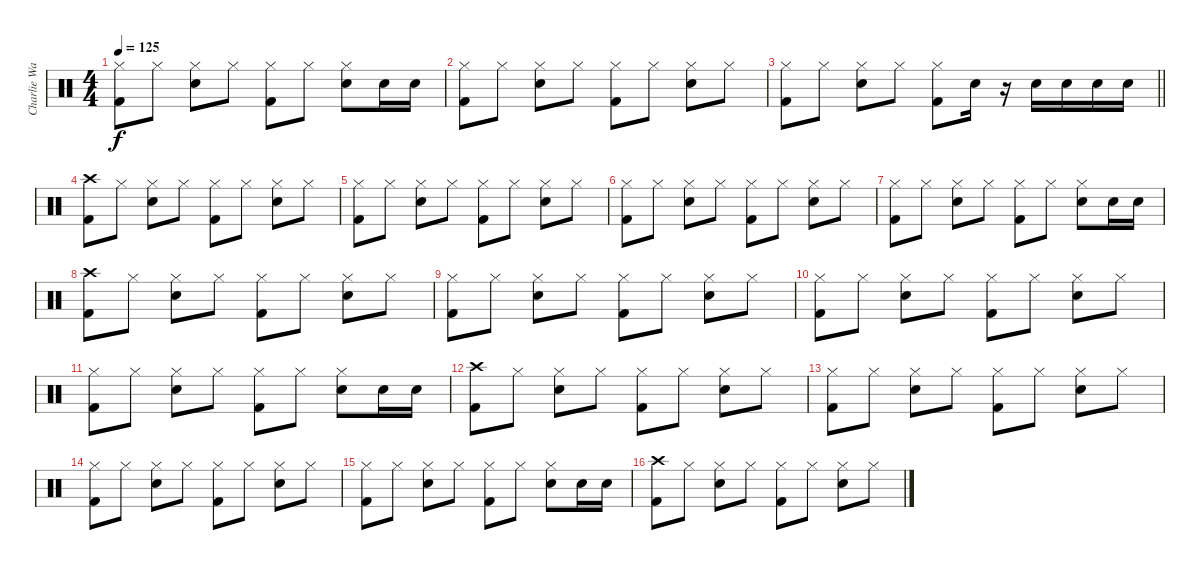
\track ("Charlie Watson" "Charlie Wa") {instrument percussion}
\staff {score}
\articulation defaults
\ts (4 4)
\tempo 125
\clef neutral
\ks c
("Hi-Hat (closed)" "Kick (hit) 2").8{dy f} "Hi-Hat (closed)".8 ("Hi-Hat (closed)" "Snare (hit) 2").8 "Hi-Hat (closed)".8 ("Hi-Hat (closed)" "Kick (hit) 2").8 "Hi-Hat (closed)".8 ("Hi-Hat (closed)" "Snare (hit) 2").8 "Snare (hit) 2".16 "Snare (hit) 2".16 |
("Hi-Hat (closed)" "Kick (hit) 2").8 "Hi-Hat (closed)".8 ("Hi-Hat (closed)" "Snare (hit) 2").8 "Hi-Hat (closed)".8 ("Hi-Hat (closed)" "Kick (hit) 2").8 "Hi-Hat (closed)".8 ("Hi-Hat (closed)" "Snare (hit) 2").8 "Hi-Hat (closed)".8 |
\barLineRight lightlight
("Hi-Hat (closed)" "Kick (hit) 2").8 "Hi-Hat (closed)".8 ("Hi-Hat (closed)" "Snare (hit) 2").8 "Hi-Hat (closed)".8 ("Hi-Hat (closed)" "Kick (hit) 2").8 "Snare (hit) 2".16 r.16 "Snare (hit) 2".16 "Snare (hit) 2".16 "Snare (hit) 2".16 "Snare (hit) 2".16 |
("Crash high (hit)" "Kick (hit) 2").8 "Hi-Hat (closed)".8 ("Hi-Hat (closed)" "Snare (hit) 2").8 "Hi-Hat (closed)".8 ("Hi-Hat (closed)" "Kick (hit) 2").8 "Hi-Hat (closed)".8 ("Hi-Hat (closed)" "Snare (hit) 2").8 "Hi-Hat (closed)".8 |
("Hi-Hat (closed)" "Kick (hit) 2").8 "Hi-Hat (closed)".8 ("Hi-Hat (closed)" "Snare (hit) 2").8 "Hi-Hat (closed)".8 ("Hi-Hat (closed)" "Kick (hit) 2").8 "Hi-Hat (closed)".8 ("Hi-Hat (closed)" "Snare (hit) 2").8 "Hi-Hat (closed)".8 |
("Hi-Hat (closed)" "Kick (hit) 2").8 "Hi-Hat (closed)".8 ("Hi-Hat (closed)" "Snare (hit) 2").8 "Hi-Hat (closed)".8 ("Hi-Hat (closed)" "Kick (hit) 2").8 "Hi-Hat (closed)".8 ("Hi-Hat (closed)" "Snare (hit) 2").8 "Hi-Hat (closed)".8 |
("Hi-Hat (closed)" "Kick (hit) 2").8 "Hi-Hat (closed)".8 ("Hi-Hat (closed)" "Snare (hit) 2").8 "Hi-Hat (closed)".8 ("Hi-Hat (closed)" "Kick (hit) 2").8 "Hi-Hat (closed)".8 ("Hi-Hat (closed)" "Snare (hit) 2").8 "Snare (hit) 2".16 "Snare (hit) 2".16 |
("Crash high (hit)" "Kick (hit) 2").8 "Hi-Hat (closed)".8 ("Hi-Hat (closed)" "Snare (hit) 2").8 "Hi-Hat (closed)".8 ("Hi-Hat (closed)" "Kick (hit) 2").8 "Hi-Hat (closed)".8 ("Hi-Hat (closed)" "Snare (hit) 2").8 "Hi-Hat (closed)".8 |
("Hi-Hat (closed)" "Kick (hit) 2").8 "Hi-Hat (closed)".8 ("Hi-Hat (closed)" "Snare (hit) 2").8 "Hi-Hat (closed)".8 ("Hi-Hat (closed)" "Kick (hit) 2").8 "Hi-Hat (closed)".8 ("Hi-Hat (closed)" "Snare (hit) 2").8 "Hi-Hat (closed)".8 |
("Hi-Hat (closed)" "Kick (hit) 2").8 "Hi-Hat (closed)".8 ("Hi-Hat (closed)" "Snare (hit) 2").8 "Hi-Hat (closed)".8 ("Hi-Hat (closed)" "Kick (hit) 2").8 "Hi-Hat (closed)".8 ("Hi-Hat (closed)" "Snare (hit) 2").8 "Hi-Hat (closed)".8 |
("Hi-Hat (closed)" "Kick (hit) 2").8 "Hi-Hat (closed)".8 ("Hi-Hat (closed)" "Snare (hit) 2").8 "Hi-Hat (closed)".8 ("Hi-Hat (closed)" "Kick (hit) 2").8 "Hi-Hat (closed)".8 ("Hi-Hat (closed)" "Snare (hit) 2").8 "Snare (hit) 2".16 "Snare (hit) 2".16 |
("Crash high (hit)" "Kick (hit) 2").8 "Hi-Hat (closed)".8 ("Hi-Hat (closed)" "Snare (hit) 2").8 "Hi-Hat (closed)".8 ("Hi-Hat (closed)" "Kick (hit) 2").8 "Hi-Hat (closed)".8 ("Hi-Hat (closed)" "Snare (hit) 2").8 "Hi-Hat (closed)".8 |
("Hi-Hat (closed)" "Kick (hit) 2").8 "Hi-Hat (closed)".8 ("Hi-Hat (closed)" "Snare (hit) 2").8 "Hi-Hat (closed)".8 ("Hi-Hat (closed)" "Kick (hit) 2").8 "Hi-Hat (closed)".8 ("Hi-Hat (closed)" "Snare (hit) 2").8 "Hi-Hat (closed)".8 |
("Hi-Hat (closed)" "Kick (hit) 2").8 "Hi-Hat (closed)".8 ("Hi-Hat (closed)" "Snare (hit) 2").8 "Hi-Hat (closed)".8 ("Hi-Hat (closed)" "Kick (hit) 2").8 "Hi-Hat (closed)".8 ("Hi-Hat (closed)" "Snare (hit) 2").8 "Hi-Hat (closed)".8 |
("Hi-Hat (closed)" "Kick (hit) 2").8 "Hi-Hat (closed)".8 ("Hi-Hat (closed)" "Snare (hit) 2").8 "Hi-Hat (closed)".8 ("Hi-Hat (closed)" "Kick (hit) 2").8 "Hi-Hat (closed)".8 ("Hi-Hat (closed)" "Snare (hit) 2").8 "Snare (hit) 2".16 "Snare (hit) 2".16 |
("Crash high (hit)" "Kick (hit) 2").8 "Hi-Hat (closed)".8 ("Hi-Hat (closed)" "Snare (hit) 2").8 "Hi-Hat (closed)".8 ("Hi-Hat (closed)" "Kick (hit) 2").8 "Hi-Hat (closed)".8 ("Hi-Hat (closed)" "Snare (hit) 2").8 "Hi-Hat (closed)".8
